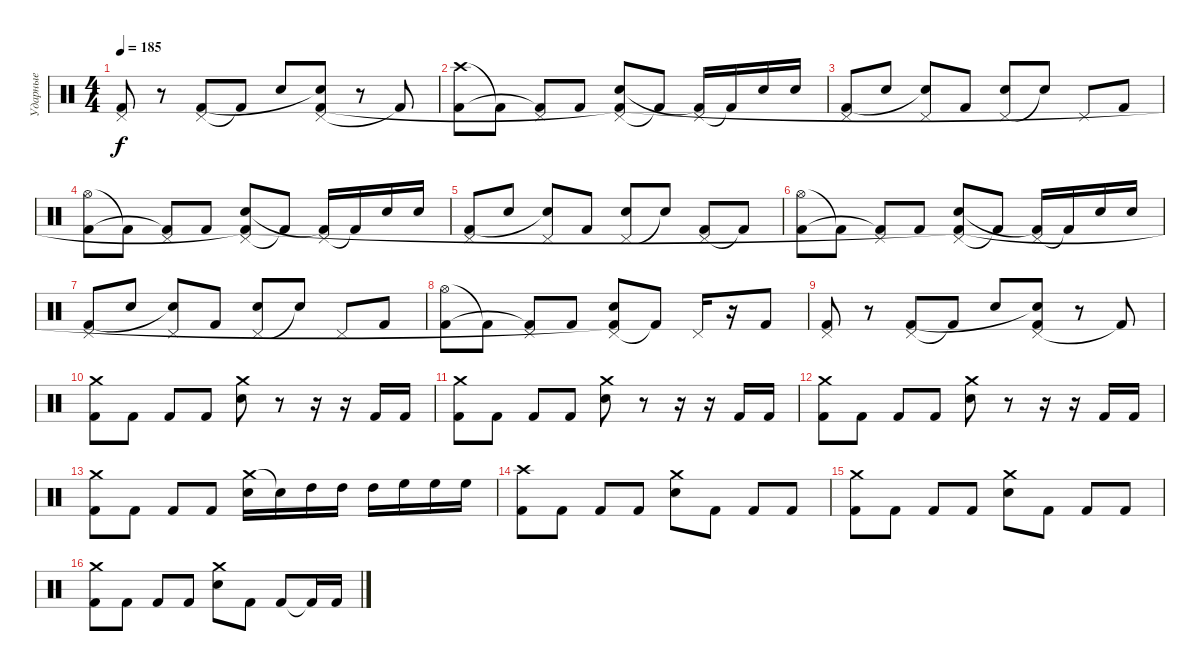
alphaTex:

\track ("Ударные" "Ударные") {instrument percussion}
\staff {score}
\articulation defaults
\ts (4 4)
\tempo 185
\clef neutral
\ks c
("Pedal Hi-Hat (hit)" "Kick (hit) 2").8{dy f} r.8 ("Pedal Hi-Hat (hit)" "Kick (hit) 2").8 "Kick (hit) 2"{t}.8 "Electric Snare (hit)".8 ("Pedal Hi-Hat (hit)" "Electric Snare (hit)"{t} "Kick (hit) 2").8 r.8 "Kick (hit) 2"{t}.8 |
("Crash high (hit)" "Kick (hit) 2").8 "Kick (hit) 2"{t}.8 ("Pedal Hi-Hat (hit)" "Kick (hit) 2"{t}).8 "Kick (hit) 2".8 ("Pedal Hi-Hat (hit)" "Electric Snare (hit)" "Kick (hit) 2"{t}).8 "Kick (hit) 2"{t}.8 ("Pedal Hi-Hat (hit)" "Kick (hit) 2"{t}).16 "Kick (hit) 2"{t}.16 "Electric Snare (hit)".16 "Electric Snare (hit)".16 |
("Pedal Hi-Hat (hit)" "Kick (hit) 2").8 "Electric Snare (hit)".8 ("Pedal Hi-Hat (hit)" "Snare (hit)"{t}).8 "Kick (hit) 2".8 ("Pedal Hi-Hat (hit)" "Electric Snare (hit)").8 "Electric Snare (hit)"{t}.8 "Pedal Hi-Hat (hit)".8 "Kick (hit) 2".8 |
("Hi-Hat (open)" "Kick (hit) 2").8 "Kick (hit) 2"{t}.8 ("Pedal Hi-Hat (hit)" "Kick (hit) 2"{t}).8 "Kick (hit) 2".8 ("Pedal Hi-Hat (hit)" "Electric Snare (hit)" "Kick (hit) 2"{t}).8 "Kick (hit) 2"{t}.8 ("Pedal Hi-Hat (hit)" "Kick (hit) 2"{t}).16 "Kick (hit) 2"{t}.16 "Electric Snare (hit)".16 "Electric Snare (hit)".16 |
("Pedal Hi-Hat (hit)" "Kick (hit) 2").8 "Electric Snare (hit)".8 ("Pedal Hi-Hat (hit)" "Snare (hit)"{t}).8 "Kick (hit) 2".8 ("Pedal Hi-Hat (hit)" "Electric Snare (hit)").8 "Electric Snare (hit)"{t}.8 ("Pedal Hi-Hat (hit)" "Kick (hit) 2").8 "Kick (hit) 2"{t}.8 |
("Hi-Hat (open)" "Kick (hit) 2").8 "Kick (hit) 2"{t}.8 ("Pedal Hi-Hat (hit)" "Kick (hit) 2"{t}).8 "Kick (hit) 2".8 ("Pedal Hi-Hat (hit)" "Electric Snare (hit)" "Kick (hit) 2"{t}).8 "Kick (hit) 2"{t}.8 ("Pedal Hi-Hat (hit)" "Kick (hit) 2"{t}).16 "Kick (hit) 2"{t}.16 "Electric Snare (hit)".16 "Electric Snare (hit)".16 |
("Pedal Hi-Hat (hit)" "Kick (hit) 2").8 "Electric Snare (hit)".8 ("Pedal Hi-Hat (hit)" "Snare (hit)"{t}).8 "Kick (hit) 2".8 ("Pedal Hi-Hat (hit)" "Electric Snare (hit)").8 "Electric Snare (hit)"{t}.8 "Pedal Hi-Hat (hit)".8 "Kick (hit) 2".8 |
("Hi-Hat (open)" "Kick (hit) 2").8 "Kick (hit) 2"{t}.8 ("Pedal Hi-Hat (hit)" "Kick (hit) 2"{t}).8 "Kick (hit) 2".8 ("Pedal Hi-Hat (hit)" "Electric Snare (hit)" "Kick (hit) 2"{t}).8 "Kick (hit) 2"{t}.8 "Pedal Hi-Hat (hit)".16 r.16 "Kick (hit) 2".8 |
("Pedal Hi-Hat (hit)" "Kick (hit) 2").8 r.8 ("Pedal Hi-Hat (hit)" "Kick (hit) 2").8 "Kick (hit) 2"{t}.8 "Electric Snare (hit)".8 ("Pedal Hi-Hat (hit)" "Electric Snare (hit)"{t} "Kick (hit) 2").8 r.8 "Kick (hit) 2"{t}.8 |
("Crash medium (hit)" "Kick (hit) 2").8 "Kick (hit) 2".8 "Kick (hit) 2".8 "Kick (hit) 2".8 ("Crash medium (hit)" "Electric Snare (hit)").8 r.8 r.16 r.16 "Kick (hit) 2".16 "Kick (hit) 2".16 |
("Crash medium (hit)" "Kick (hit) 2").8 "Kick (hit) 2".8 "Kick (hit) 2".8 "Kick (hit) 2".8 ("Crash medium (hit)" "Electric Snare (hit)").8 r.8 r.16 r.16 "Kick (hit) 2".16 "Kick (hit) 2".16 |
("Crash medium (hit)" "Kick (hit) 2").8 "Kick (hit) 2".8 "Kick (hit) 2".8 "Kick (hit) 2".8 ("Crash medium (hit)" "Electric Snare (hit)").8 r.8 r.16 r.16 "Kick (hit) 2".16 "Kick (hit) 2".16 |
("Crash medium (hit)" "Kick (hit) 2").8 "Kick (hit) 2".8 "Kick (hit) 2".8 "Kick (hit) 2".8 ("Crash medium (hit)" "Electric Snare (hit)").16 "Electric Snare (hit)"{t}.16 "High Tom (hit)".16 "High Tom (hit)".16 "High Tom (hit)".16 "High Floor Tom (hit)".16 "High Floor Tom (hit)".16 "High Floor Tom (hit)".16 |
("Crash high (hit)" "Kick (hit) 2").8 "Kick (hit) 2".8 "Kick (hit) 2".8 "Kick (hit) 2".8 ("Crash medium (hit)" "Electric Snare (hit)").8 "Kick (hit) 2".8 "Kick (hit) 2".8 "Kick (hit) 2".8 |
("Crash medium (hit)" "Kick (hit) 2").8 "Kick (hit) 2".8 "Kick (hit) 2".8 "Kick (hit) 2".8 ("Crash medium (hit)" "Electric Snare (hit)").8 "Kick (hit) 2".8 "Kick (hit) 2".8 "Kick (hit) 2".8 |
("Crash medium (hit)" "Kick (hit) 2").8 "Kick (hit) 2".8 "Kick (hit) 2".8 "Kick (hit) 2".8 ("Crash medium (hit)" "Electric Snare (hit)").8 "Kick (hit) 2".8 "Kick (hit) 2".8 "Kick (hit) 2"{t}.16 "Kick (hit) 2".16
